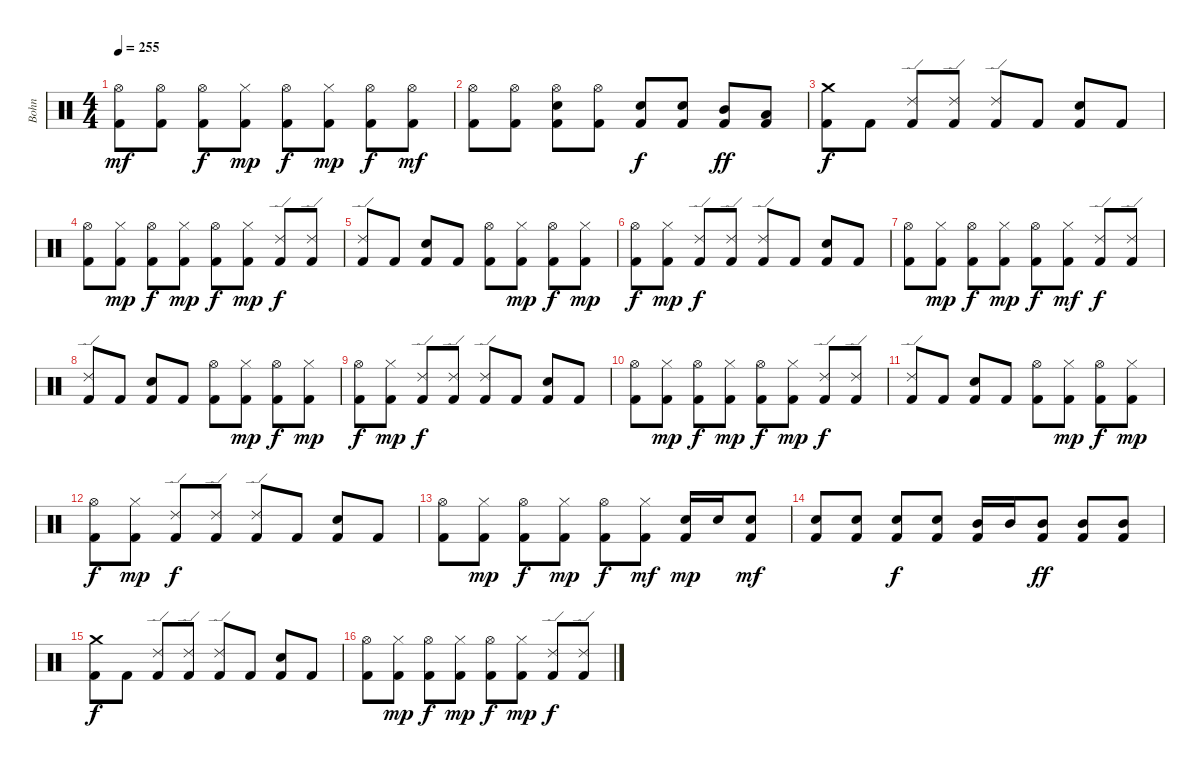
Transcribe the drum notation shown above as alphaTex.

\track ("Bohn" "Bohn") {instrument percussion}
\staff {score}
\articulation defaults
\ts (4 4)
\tempo 255
\clef neutral
\ks c
("Hi-Hat (open)" "Kick (hit) 2").8{dy mf} ("Hi-Hat (open)" "Kick (hit) 2").8 ("Hi-Hat (open)" "Kick (hit) 2").8{dy f} ("Hi-Hat (closed)" "Kick (hit) 2").8{dy mp} ("Hi-Hat (open)" "Kick (hit) 2").8{dy f} ("Hi-Hat (closed)" "Kick (hit) 2").8{dy mp} ("Hi-Hat (open)" "Kick (hit) 2").8{dy f} ("Hi-Hat (open)" "Kick (hit) 2").8{dy mf} |
("Hi-Hat (open)" "Kick (hit) 2").8 ("Hi-Hat (open)" "Kick (hit) 2").8 ("Hi-Hat (open)" "Electric Snare (hit)" "Kick (hit) 2").8 ("Hi-Hat (open)" "Kick (hit) 2").8 ("Electric Snare (hit)" "Kick (hit) 2").8{dy f} ("Electric Snare (hit)" "Kick (hit) 2").8 ("Mid Tom (hit)" "Kick (hit) 2").8{dy ff} ("Low Tom (hit)" "Kick (hit) 2").8 |
("Crash medium (hit)" "Kick (hit) 2").8{dy f} "Kick (hit) 2".8 ("Ride (edge) 2" "Kick (hit) 2").8 ("Ride (edge) 2" "Kick (hit) 2").8 ("Ride (edge) 2" "Kick (hit) 2").8 "Kick (hit) 2".8 ("Electric Snare (hit)" "Kick (hit) 2").8 "Kick (hit) 2".8 |
("Hi-Hat (open)" "Kick (hit) 2").8 ("Hi-Hat (closed)" "Kick (hit) 2").8{dy mp} ("Hi-Hat (open)" "Kick (hit) 2").8{dy f} ("Hi-Hat (closed)" "Kick (hit) 2").8{dy mp} ("Hi-Hat (open)" "Kick (hit) 2").8{dy f} ("Hi-Hat (closed)" "Kick (hit) 2").8{dy mp} ("Ride (edge) 2" "Kick (hit) 2").8{dy f} ("Ride (edge) 2" "Kick (hit) 2").8 |
("Ride (edge) 2" "Kick (hit) 2").8 "Kick (hit) 2".8 ("Electric Snare (hit)" "Kick (hit) 2").8 "Kick (hit) 2".8 ("Hi-Hat (open)" "Kick (hit) 2").8 ("Hi-Hat (closed)" "Kick (hit) 2").8{dy mp} ("Hi-Hat (open)" "Kick (hit) 2").8{dy f} ("Hi-Hat (closed)" "Kick (hit) 2").8{dy mp} |
("Hi-Hat (open)" "Kick (hit) 2").8{dy f} ("Hi-Hat (closed)" "Kick (hit) 2").8{dy mp} ("Ride (edge) 2" "Kick (hit) 2").8{dy f} ("Ride (edge) 2" "Kick (hit) 2").8 ("Ride (edge) 2" "Kick (hit) 2").8 "Kick (hit) 2".8 ("Electric Snare (hit)" "Kick (hit) 2").8 "Kick (hit) 2".8 |
("Hi-Hat (open)" "Kick (hit) 2").8 ("Hi-Hat (closed)" "Kick (hit) 2").8{dy mp} ("Hi-Hat (open)" "Kick (hit) 2").8{dy f} ("Hi-Hat (closed)" "Kick (hit) 2").8{dy mp} ("Hi-Hat (open)" "Kick (hit) 2").8{dy f} ("Hi-Hat (closed)" "Kick (hit) 2").8{dy mf} ("Ride (edge) 2" "Kick (hit) 2").8{dy f} ("Ride (edge) 2" "Kick (hit) 2").8 |
("Ride (edge) 2" "Kick (hit) 2").8 "Kick (hit) 2".8 ("Electric Snare (hit)" "Kick (hit) 2").8 "Kick (hit) 2".8 ("Hi-Hat (open)" "Kick (hit) 2").8 ("Hi-Hat (closed)" "Kick (hit) 2").8{dy mp} ("Hi-Hat (open)" "Kick (hit) 2").8{dy f} ("Hi-Hat (closed)" "Kick (hit) 2").8{dy mp} |
("Hi-Hat (open)" "Kick (hit) 2").8{dy f} ("Hi-Hat (closed)" "Kick (hit) 2").8{dy mp} ("Ride (edge) 2" "Kick (hit) 2").8{dy f} ("Ride (edge) 2" "Kick (hit) 2").8 ("Ride (edge) 2" "Kick (hit) 2").8 "Kick (hit) 2".8 ("Electric Snare (hit)" "Kick (hit) 2").8 "Kick (hit) 2".8 |
("Hi-Hat (open)" "Kick (hit) 2").8 ("Hi-Hat (closed)" "Kick (hit) 2").8{dy mp} ("Hi-Hat (open)" "Kick (hit) 2").8{dy f} ("Hi-Hat (closed)" "Kick (hit) 2").8{dy mp} ("Hi-Hat (open)" "Kick (hit) 2").8{dy f} ("Hi-Hat (closed)" "Kick (hit) 2").8{dy mp} ("Ride (edge) 2" "Kick (hit) 2").8{dy f} ("Ride (edge) 2" "Kick (hit) 2").8 |
("Ride (edge) 2" "Kick (hit) 2").8 "Kick (hit) 2".8 ("Electric Snare (hit)" "Kick (hit) 2").8 "Kick (hit) 2".8 ("Hi-Hat (open)" "Kick (hit) 2").8 ("Hi-Hat (closed)" "Kick (hit) 2").8{dy mp} ("Hi-Hat (open)" "Kick (hit) 2").8{dy f} ("Hi-Hat (closed)" "Kick (hit) 2").8{dy mp} |
("Hi-Hat (open)" "Kick (hit) 2").8{dy f} ("Hi-Hat (closed)" "Kick (hit) 2").8{dy mp} ("Ride (edge) 2" "Kick (hit) 2").8{dy f} ("Ride (edge) 2" "Kick (hit) 2").8 ("Ride (edge) 2" "Kick (hit) 2").8 "Kick (hit) 2".8 ("Electric Snare (hit)" "Kick (hit) 2").8 "Kick (hit) 2".8 |
("Hi-Hat (open)" "Kick (hit) 2").8 ("Hi-Hat (closed)" "Kick (hit) 2").8{dy mp} ("Hi-Hat (open)" "Kick (hit) 2").8{dy f} ("Hi-Hat (closed)" "Kick (hit) 2").8{dy mp} ("Hi-Hat (open)" "Kick (hit) 2").8{dy f} ("Hi-Hat (closed)" "Kick (hit) 2").8{dy mf} ("Electric Snare (hit)" "Kick (hit) 2").16{dy mp} "Electric Snare (hit)".16 ("Electric Snare (hit)" "Kick (hit) 2").8{dy mf} |
("Electric Snare (hit)" "Kick (hit) 2").8 ("Electric Snare (hit)" "Kick (hit) 2").8 ("Electric Snare (hit)" "Kick (hit) 2").8{dy f} ("Electric Snare (hit)" "Kick (hit) 2").8 ("Mid Tom (hit)" "Kick (hit) 2").16 "Mid Tom (hit)".16 ("Mid Tom (hit)" "Kick (hit) 2").8{dy ff} ("Mid Tom (hit)" "Kick (hit) 2").8 ("Mid Tom (hit)" "Kick (hit) 2").8 |
("Crash medium (hit)" "Kick (hit) 2").8{dy f} "Kick (hit) 2".8 ("Ride (edge) 2" "Kick (hit) 2").8 ("Ride (edge) 2" "Kick (hit) 2").8 ("Ride (edge) 2" "Kick (hit) 2").8 "Kick (hit) 2".8 ("Electric Snare (hit)" "Kick (hit) 2").8 "Kick (hit) 2".8 |
("Hi-Hat (open)" "Kick (hit) 2").8 ("Hi-Hat (closed)" "Kick (hit) 2").8{dy mp} ("Hi-Hat (open)" "Kick (hit) 2").8{dy f} ("Hi-Hat (closed)" "Kick (hit) 2").8{dy mp} ("Hi-Hat (open)" "Kick (hit) 2").8{dy f} ("Hi-Hat (closed)" "Kick (hit) 2").8{dy mp} ("Ride (edge) 2" "Kick (hit) 2").8{dy f} ("Ride (edge) 2" "Kick (hit) 2").8
